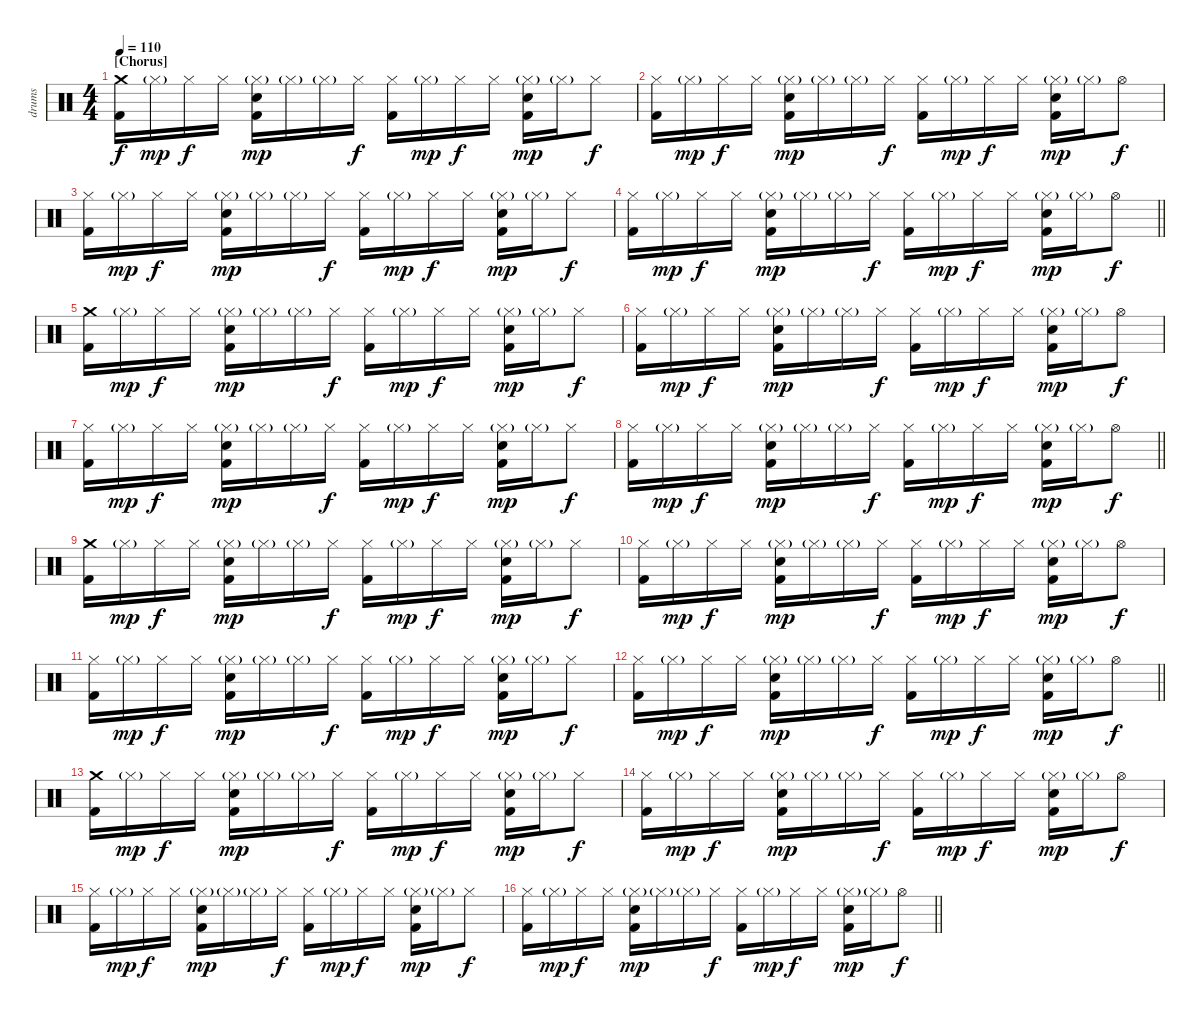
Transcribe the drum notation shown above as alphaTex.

\track ("drums" "drums") {instrument percussion}
\staff {score}
\articulation defaults
\ts (4 4)
\section ("" "[Chorus]")
\tempo 110
\clef neutral
\ks c
("Crash medium (hit)" "Kick (hit) 2").16{dy f} "Hi-Hat (closed)"{g}.16{dy mp} "Hi-Hat (closed)".16{dy f} "Hi-Hat (closed)".16 ("Hi-Hat (closed)"{g} "Electric Snare (hit)" "Kick (hit) 2").16{dy mp} "Hi-Hat (closed)"{g}.16 "Hi-Hat (closed)"{g}.16 "Hi-Hat (closed)".16{dy f} ("Hi-Hat (closed)" "Kick (hit) 2").16 "Hi-Hat (closed)"{g}.16{dy mp} "Hi-Hat (closed)".16{dy f} "Hi-Hat (closed)".16 ("Hi-Hat (closed)"{g} "Electric Snare (hit)" "Kick (hit) 2").16{dy mp} "Hi-Hat (closed)"{g}.16 "Hi-Hat (closed)".8{dy f} |
("Hi-Hat (closed)" "Kick (hit) 2").16 "Hi-Hat (closed)"{g}.16{dy mp} "Hi-Hat (closed)".16{dy f} "Hi-Hat (closed)".16 ("Hi-Hat (closed)"{g} "Electric Snare (hit)" "Kick (hit) 2").16{dy mp} "Hi-Hat (closed)"{g}.16 "Hi-Hat (closed)"{g}.16 "Hi-Hat (closed)".16{dy f} ("Hi-Hat (closed)" "Kick (hit) 2").16 "Hi-Hat (closed)"{g}.16{dy mp} "Hi-Hat (closed)".16{dy f} "Hi-Hat (closed)".16 ("Hi-Hat (closed)"{g} "Electric Snare (hit)" "Kick (hit) 2").16{dy mp} "Hi-Hat (closed)"{g}.16 "Hi-Hat (open)".8{dy f} |
("Hi-Hat (closed)" "Kick (hit) 2").16 "Hi-Hat (closed)"{g}.16{dy mp} "Hi-Hat (closed)".16{dy f} "Hi-Hat (closed)".16 ("Hi-Hat (closed)"{g} "Electric Snare (hit)" "Kick (hit) 2").16{dy mp} "Hi-Hat (closed)"{g}.16 "Hi-Hat (closed)"{g}.16 "Hi-Hat (closed)".16{dy f} ("Hi-Hat (closed)" "Kick (hit) 2").16 "Hi-Hat (closed)"{g}.16{dy mp} "Hi-Hat (closed)".16{dy f} "Hi-Hat (closed)".16 ("Hi-Hat (closed)"{g} "Electric Snare (hit)" "Kick (hit) 2").16{dy mp} "Hi-Hat (closed)"{g}.16 "Hi-Hat (closed)".8{dy f} |
\barLineRight lightlight
("Hi-Hat (closed)" "Kick (hit) 2").16 "Hi-Hat (closed)"{g}.16{dy mp} "Hi-Hat (closed)".16{dy f} "Hi-Hat (closed)".16 ("Hi-Hat (closed)"{g} "Electric Snare (hit)" "Kick (hit) 2").16{dy mp} "Hi-Hat (closed)"{g}.16 "Hi-Hat (closed)"{g}.16 "Hi-Hat (closed)".16{dy f} ("Hi-Hat (closed)" "Kick (hit) 2").16 "Hi-Hat (closed)"{g}.16{dy mp} "Hi-Hat (closed)".16{dy f} "Hi-Hat (closed)".16 ("Hi-Hat (closed)"{g} "Electric Snare (hit)" "Kick (hit) 2").16{dy mp} "Hi-Hat (closed)"{g}.16 "Hi-Hat (open)".8{dy f} |
("Crash medium (hit)" "Kick (hit) 2").16 "Hi-Hat (closed)"{g}.16{dy mp} "Hi-Hat (closed)".16{dy f} "Hi-Hat (closed)".16 ("Hi-Hat (closed)"{g} "Electric Snare (hit)" "Kick (hit) 2").16{dy mp} "Hi-Hat (closed)"{g}.16 "Hi-Hat (closed)"{g}.16 "Hi-Hat (closed)".16{dy f} ("Hi-Hat (closed)" "Kick (hit) 2").16 "Hi-Hat (closed)"{g}.16{dy mp} "Hi-Hat (closed)".16{dy f} "Hi-Hat (closed)".16 ("Hi-Hat (closed)"{g} "Electric Snare (hit)" "Kick (hit) 2").16{dy mp} "Hi-Hat (closed)"{g}.16 "Hi-Hat (closed)".8{dy f} |
("Hi-Hat (closed)" "Kick (hit) 2").16 "Hi-Hat (closed)"{g}.16{dy mp} "Hi-Hat (closed)".16{dy f} "Hi-Hat (closed)".16 ("Hi-Hat (closed)"{g} "Electric Snare (hit)" "Kick (hit) 2").16{dy mp} "Hi-Hat (closed)"{g}.16 "Hi-Hat (closed)"{g}.16 "Hi-Hat (closed)".16{dy f} ("Hi-Hat (closed)" "Kick (hit) 2").16 "Hi-Hat (closed)"{g}.16{dy mp} "Hi-Hat (closed)".16{dy f} "Hi-Hat (closed)".16 ("Hi-Hat (closed)"{g} "Electric Snare (hit)" "Kick (hit) 2").16{dy mp} "Hi-Hat (closed)"{g}.16 "Hi-Hat (open)".8{dy f} |
("Hi-Hat (closed)" "Kick (hit) 2").16 "Hi-Hat (closed)"{g}.16{dy mp} "Hi-Hat (closed)".16{dy f} "Hi-Hat (closed)".16 ("Hi-Hat (closed)"{g} "Electric Snare (hit)" "Kick (hit) 2").16{dy mp} "Hi-Hat (closed)"{g}.16 "Hi-Hat (closed)"{g}.16 "Hi-Hat (closed)".16{dy f} ("Hi-Hat (closed)" "Kick (hit) 2").16 "Hi-Hat (closed)"{g}.16{dy mp} "Hi-Hat (closed)".16{dy f} "Hi-Hat (closed)".16 ("Hi-Hat (closed)"{g} "Electric Snare (hit)" "Kick (hit) 2").16{dy mp} "Hi-Hat (closed)"{g}.16 "Hi-Hat (closed)".8{dy f} |
\barLineRight lightlight
("Hi-Hat (closed)" "Kick (hit) 2").16 "Hi-Hat (closed)"{g}.16{dy mp} "Hi-Hat (closed)".16{dy f} "Hi-Hat (closed)".16 ("Hi-Hat (closed)"{g} "Electric Snare (hit)" "Kick (hit) 2").16{dy mp} "Hi-Hat (closed)"{g}.16 "Hi-Hat (closed)"{g}.16 "Hi-Hat (closed)".16{dy f} ("Hi-Hat (closed)" "Kick (hit) 2").16 "Hi-Hat (closed)"{g}.16{dy mp} "Hi-Hat (closed)".16{dy f} "Hi-Hat (closed)".16 ("Hi-Hat (closed)"{g} "Electric Snare (hit)" "Kick (hit) 2").16{dy mp} "Hi-Hat (closed)"{g}.16 "Hi-Hat (open)".8{dy f} |
("Crash medium (hit)" "Kick (hit) 2").16 "Hi-Hat (closed)"{g}.16{dy mp} "Hi-Hat (closed)".16{dy f} "Hi-Hat (closed)".16 ("Hi-Hat (closed)"{g} "Electric Snare (hit)" "Kick (hit) 2").16{dy mp} "Hi-Hat (closed)"{g}.16 "Hi-Hat (closed)"{g}.16 "Hi-Hat (closed)".16{dy f} ("Hi-Hat (closed)" "Kick (hit) 2").16 "Hi-Hat (closed)"{g}.16{dy mp} "Hi-Hat (closed)".16{dy f} "Hi-Hat (closed)".16 ("Hi-Hat (closed)"{g} "Electric Snare (hit)" "Kick (hit) 2").16{dy mp} "Hi-Hat (closed)"{g}.16 "Hi-Hat (closed)".8{dy f} |
("Hi-Hat (closed)" "Kick (hit) 2").16 "Hi-Hat (closed)"{g}.16{dy mp} "Hi-Hat (closed)".16{dy f} "Hi-Hat (closed)".16 ("Hi-Hat (closed)"{g} "Electric Snare (hit)" "Kick (hit) 2").16{dy mp} "Hi-Hat (closed)"{g}.16 "Hi-Hat (closed)"{g}.16 "Hi-Hat (closed)".16{dy f} ("Hi-Hat (closed)" "Kick (hit) 2").16 "Hi-Hat (closed)"{g}.16{dy mp} "Hi-Hat (closed)".16{dy f} "Hi-Hat (closed)".16 ("Hi-Hat (closed)"{g} "Electric Snare (hit)" "Kick (hit) 2").16{dy mp} "Hi-Hat (closed)"{g}.16 "Hi-Hat (open)".8{dy f} |
("Hi-Hat (closed)" "Kick (hit) 2").16 "Hi-Hat (closed)"{g}.16{dy mp} "Hi-Hat (closed)".16{dy f} "Hi-Hat (closed)".16 ("Hi-Hat (closed)"{g} "Electric Snare (hit)" "Kick (hit) 2").16{dy mp} "Hi-Hat (closed)"{g}.16 "Hi-Hat (closed)"{g}.16 "Hi-Hat (closed)".16{dy f} ("Hi-Hat (closed)" "Kick (hit) 2").16 "Hi-Hat (closed)"{g}.16{dy mp} "Hi-Hat (closed)".16{dy f} "Hi-Hat (closed)".16 ("Hi-Hat (closed)"{g} "Electric Snare (hit)" "Kick (hit) 2").16{dy mp} "Hi-Hat (closed)"{g}.16 "Hi-Hat (closed)".8{dy f} |
\barLineRight lightlight
("Hi-Hat (closed)" "Kick (hit) 2").16 "Hi-Hat (closed)"{g}.16{dy mp} "Hi-Hat (closed)".16{dy f} "Hi-Hat (closed)".16 ("Hi-Hat (closed)"{g} "Electric Snare (hit)" "Kick (hit) 2").16{dy mp} "Hi-Hat (closed)"{g}.16 "Hi-Hat (closed)"{g}.16 "Hi-Hat (closed)".16{dy f} ("Hi-Hat (closed)" "Kick (hit) 2").16 "Hi-Hat (closed)"{g}.16{dy mp} "Hi-Hat (closed)".16{dy f} "Hi-Hat (closed)".16 ("Hi-Hat (closed)"{g} "Electric Snare (hit)" "Kick (hit) 2").16{dy mp} "Hi-Hat (closed)"{g}.16 "Hi-Hat (open)".8{dy f} |
("Crash medium (hit)" "Kick (hit) 2").16 "Hi-Hat (closed)"{g}.16{dy mp} "Hi-Hat (closed)".16{dy f} "Hi-Hat (closed)".16 ("Hi-Hat (closed)"{g} "Electric Snare (hit)" "Kick (hit) 2").16{dy mp} "Hi-Hat (closed)"{g}.16 "Hi-Hat (closed)"{g}.16 "Hi-Hat (closed)".16{dy f} ("Hi-Hat (closed)" "Kick (hit) 2").16 "Hi-Hat (closed)"{g}.16{dy mp} "Hi-Hat (closed)".16{dy f} "Hi-Hat (closed)".16 ("Hi-Hat (closed)"{g} "Electric Snare (hit)" "Kick (hit) 2").16{dy mp} "Hi-Hat (closed)"{g}.16 "Hi-Hat (closed)".8{dy f} |
("Hi-Hat (closed)" "Kick (hit) 2").16 "Hi-Hat (closed)"{g}.16{dy mp} "Hi-Hat (closed)".16{dy f} "Hi-Hat (closed)".16 ("Hi-Hat (closed)"{g} "Electric Snare (hit)" "Kick (hit) 2").16{dy mp} "Hi-Hat (closed)"{g}.16 "Hi-Hat (closed)"{g}.16 "Hi-Hat (closed)".16{dy f} ("Hi-Hat (closed)" "Kick (hit) 2").16 "Hi-Hat (closed)"{g}.16{dy mp} "Hi-Hat (closed)".16{dy f} "Hi-Hat (closed)".16 ("Hi-Hat (closed)"{g} "Electric Snare (hit)" "Kick (hit) 2").16{dy mp} "Hi-Hat (closed)"{g}.16 "Hi-Hat (open)".8{dy f} |
("Hi-Hat (closed)" "Kick (hit) 2").16 "Hi-Hat (closed)"{g}.16{dy mp} "Hi-Hat (closed)".16{dy f} "Hi-Hat (closed)".16 ("Hi-Hat (closed)"{g} "Electric Snare (hit)" "Kick (hit) 2").16{dy mp} "Hi-Hat (closed)"{g}.16 "Hi-Hat (closed)"{g}.16 "Hi-Hat (closed)".16{dy f} ("Hi-Hat (closed)" "Kick (hit) 2").16 "Hi-Hat (closed)"{g}.16{dy mp} "Hi-Hat (closed)".16{dy f} "Hi-Hat (closed)".16 ("Hi-Hat (closed)"{g} "Electric Snare (hit)" "Kick (hit) 2").16{dy mp} "Hi-Hat (closed)"{g}.16 "Hi-Hat (closed)".8{dy f} |
\barLineRight lightlight
("Hi-Hat (closed)" "Kick (hit) 2").16 "Hi-Hat (closed)"{g}.16{dy mp} "Hi-Hat (closed)".16{dy f} "Hi-Hat (closed)".16 ("Hi-Hat (closed)"{g} "Electric Snare (hit)" "Kick (hit) 2").16{dy mp} "Hi-Hat (closed)"{g}.16 "Hi-Hat (closed)"{g}.16 "Hi-Hat (closed)".16{dy f} ("Hi-Hat (closed)" "Kick (hit) 2").16 "Hi-Hat (closed)"{g}.16{dy mp} "Hi-Hat (closed)".16{dy f} "Hi-Hat (closed)".16 ("Hi-Hat (closed)"{g} "Electric Snare (hit)" "Kick (hit) 2").16{dy mp} "Hi-Hat (closed)"{g}.16 "Hi-Hat (open)".8{dy f}
